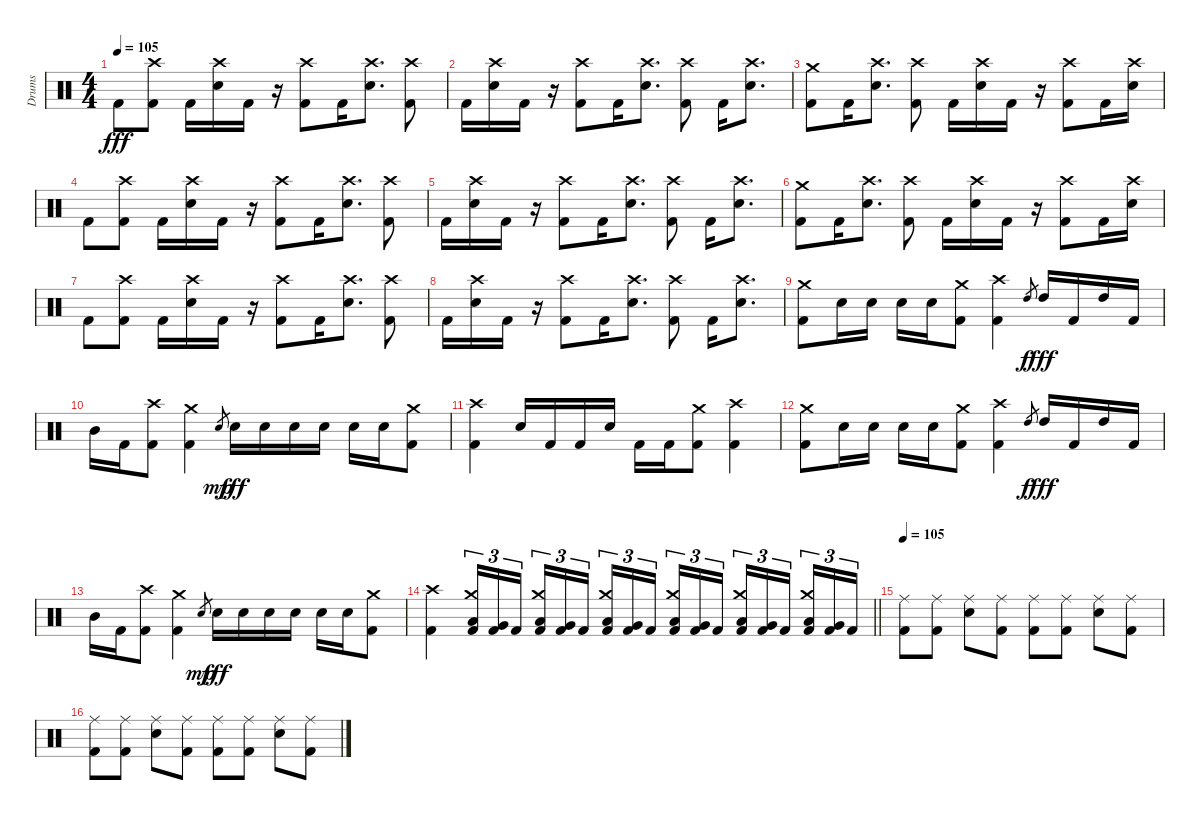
\track ("Drums" "Drums") {instrument percussion}
\staff {score}
\articulation defaults
\ts (4 4)
\tempo 105
\clef neutral
\ks c "Kick (hit) 2".8{dy fff}
("Crash high (hit)" "Kick (hit) 2").8 "Kick (hit) 2".16 ("Crash high (hit)" "Electric Snare (hit)").16 "Kick (hit) 2".16 r.16 ("Crash high (hit)" "Kick (hit) 2").8 "Kick (hit) 2".16 ("Crash high (hit)" "Electric Snare (hit)").8{d} ("Crash high (hit)" "Kick (hit) 2").8 |
"Kick (hit) 2".16 ("Crash high (hit)" "Electric Snare (hit)").16 "Kick (hit) 2".16 r.16 ("Crash high (hit)" "Kick (hit) 2").8 "Kick (hit) 2".16 ("Crash high (hit)" "Electric Snare (hit)").8{d} ("Crash high (hit)" "Kick (hit) 2").8 "Kick (hit) 2".16 ("Crash high (hit)" "Electric Snare (hit)").8{d} |
("Crash medium (hit)" "Kick (hit) 2").8 "Kick (hit) 2".16 ("Crash high (hit)" "Electric Snare (hit)").8{d} ("Crash high (hit)" "Kick (hit) 2").8 "Kick (hit) 2".16 ("Crash high (hit)" "Electric Snare (hit)").16 "Kick (hit) 2".16 r.16 ("Crash high (hit)" "Kick (hit) 2").8 "Kick (hit) 2".16 ("Crash high (hit)" "Electric Snare (hit)").16 |
"Kick (hit) 2".8 ("Crash high (hit)" "Kick (hit) 2").8 "Kick (hit) 2".16 ("Crash high (hit)" "Electric Snare (hit)").16 "Kick (hit) 2".16 r.16 ("Crash high (hit)" "Kick (hit) 2").8 "Kick (hit) 2".16 ("Crash high (hit)" "Electric Snare (hit)").8{d} ("Crash high (hit)" "Kick (hit) 2").8 |
"Kick (hit) 2".16 ("Crash high (hit)" "Electric Snare (hit)").16 "Kick (hit) 2".16 r.16 ("Crash high (hit)" "Kick (hit) 2").8 "Kick (hit) 2".16 ("Crash high (hit)" "Electric Snare (hit)").8{d} ("Crash high (hit)" "Kick (hit) 2").8 "Kick (hit) 2".16 ("Crash high (hit)" "Electric Snare (hit)").8{d} |
("Crash medium (hit)" "Kick (hit) 2").8 "Kick (hit) 2".16 ("Crash high (hit)" "Electric Snare (hit)").8{d} ("Crash high (hit)" "Kick (hit) 2").8 "Kick (hit) 2".16 ("Crash high (hit)" "Electric Snare (hit)").16 "Kick (hit) 2".16 r.16 ("Crash high (hit)" "Kick (hit) 2").8 "Kick (hit) 2".16 ("Crash high (hit)" "Electric Snare (hit)").16 |
"Kick (hit) 2".8 ("Crash high (hit)" "Kick (hit) 2").8 "Kick (hit) 2".16 ("Crash high (hit)" "Electric Snare (hit)").16 "Kick (hit) 2".16 r.16 ("Crash high (hit)" "Kick (hit) 2").8 "Kick (hit) 2".16 ("Crash high (hit)" "Electric Snare (hit)").8{d} ("Crash high (hit)" "Kick (hit) 2").8 |
"Kick (hit) 2".16 ("Crash high (hit)" "Electric Snare (hit)").16 "Kick (hit) 2".16 r.16 ("Crash high (hit)" "Kick (hit) 2").8 "Kick (hit) 2".16 ("Crash high (hit)" "Electric Snare (hit)").8{d} ("Crash high (hit)" "Kick (hit) 2").8 "Kick (hit) 2".16 ("Crash high (hit)" "Electric Snare (hit)").8{d} |
("Crash medium (hit)" "Kick (hit) 2").8 "Electric Snare (hit)".16 "Electric Snare (hit)".16 "Electric Snare (hit)".16 "Electric Snare (hit)".16 ("Crash medium (hit)" "Kick (hit) 2").8 ("Crash high (hit)" "Kick (hit) 2").4 "High Tom (hit)".8{gr dy f} "High Tom (hit)".16{dy fff} "Kick (hit) 2".16 "High Tom (hit)".16 "Kick (hit) 2".16 |
"Mid Tom (hit)".16 "Kick (hit) 2".16 ("Crash high (hit)" "Kick (hit) 2").8 ("Crash medium (hit)" "Kick (hit) 2").4 "Electric Snare (hit)".8{gr dy mp} "Electric Snare (hit)".16{dy fff} "Electric Snare (hit)".16 "Electric Snare (hit)".16 "Electric Snare (hit)".16 "Electric Snare (hit)".16 "Electric Snare (hit)".16 ("Crash medium (hit)" "Kick (hit) 2").8 |
("Crash high (hit)" "Kick (hit) 2").4 "Electric Snare (hit)".16 "Kick (hit) 2".16 "Kick (hit) 2".16 "Electric Snare (hit)".16 "Kick (hit) 2".16 "Kick (hit) 2".16 ("Crash medium (hit)" "Kick (hit) 2").8 ("Crash high (hit)" "Kick (hit) 2").4 |
("Crash medium (hit)" "Kick (hit) 2").8 "Electric Snare (hit)".16 "Electric Snare (hit)".16 "Electric Snare (hit)".16 "Electric Snare (hit)".16 ("Crash medium (hit)" "Kick (hit) 2").8 ("Crash high (hit)" "Kick (hit) 2").4 "High Tom (hit)".8{gr dy f} "High Tom (hit)".16{dy fff} "Kick (hit) 2".16 "High Tom (hit)".16 "Kick (hit) 2".16 |
"Mid Tom (hit)".16 "Kick (hit) 2".16 ("Crash high (hit)" "Kick (hit) 2").8 ("Crash medium (hit)" "Kick (hit) 2").4 "Electric Snare (hit)".8{gr dy mp} "Electric Snare (hit)".16{dy fff} "Electric Snare (hit)".16 "Electric Snare (hit)".16 "Electric Snare (hit)".16 "Electric Snare (hit)".16 "Electric Snare (hit)".16 ("Crash medium (hit)" "Kick (hit) 2").8 |
\barLineRight lightlight
("Crash high (hit)" "Kick (hit) 2").4 ("Crash medium (hit)" "Low Tom (hit)" "Kick (hit) 2").16{tu (3 2)} ("Very Low Tom (hit)" "Kick (hit) 2").16{tu (3 2)} "Kick (hit) 2".16{tu (3 2) beam splitsecondary} ("Crash medium (hit)" "Low Tom (hit)" "Kick (hit) 2").16{tu (3 2)} ("Very Low Tom (hit)" "Kick (hit) 2").16{tu (3 2)} "Kick (hit) 2".16{tu (3 2)} ("Crash medium (hit)" "Low Tom (hit)" "Kick (hit) 2").16{tu (3 2)} ("Very Low Tom (hit)" "Kick (hit) 2").16{tu (3 2)} "Kick (hit) 2".16{tu (3 2) beam splitsecondary} ("Crash medium (hit)" "Low Tom (hit)" "Kick (hit) 2").16{tu (3 2)} ("Very Low Tom (hit)" "Kick (hit) 2").16{tu (3 2)} "Kick (hit) 2".16{tu (3 2)} ("Crash medium (hit)" "Low Tom (hit)" "Kick (hit) 2").16{tu (3 2)} ("Very Low Tom (hit)" "Kick (hit) 2").16{tu (3 2)} "Kick (hit) 2".16{tu (3 2) beam splitsecondary} ("Crash medium (hit)" "Low Tom (hit)" "Kick (hit) 2").16{tu (3 2)} ("Very Low Tom (hit)" "Kick (hit) 2").16{tu (3 2)} "Kick (hit) 2".16{tu (3 2)} |
\tempo 105
("Ride (middle)" "Kick (hit) 2").8 ("Ride (middle)" "Kick (hit) 2").8 ("Ride (middle)" "Electric Snare (hit)").8 ("Ride (middle)" "Kick (hit) 2").8 ("Ride (middle)" "Kick (hit) 2").8 ("Ride (middle)" "Kick (hit) 2").8 ("Ride (middle)" "Electric Snare (hit)").8 ("Ride (middle)" "Kick (hit) 2").8 |
("Ride (middle)" "Kick (hit) 2").8 ("Ride (middle)" "Kick (hit) 2").8 ("Ride (middle)" "Electric Snare (hit)").8 ("Ride (middle)" "Kick (hit) 2").8 ("Ride (middle)" "Kick (hit) 2").8 ("Ride (middle)" "Kick (hit) 2").8 ("Ride (middle)" "Electric Snare (hit)").8 ("Ride (middle)" "Kick (hit) 2").8
